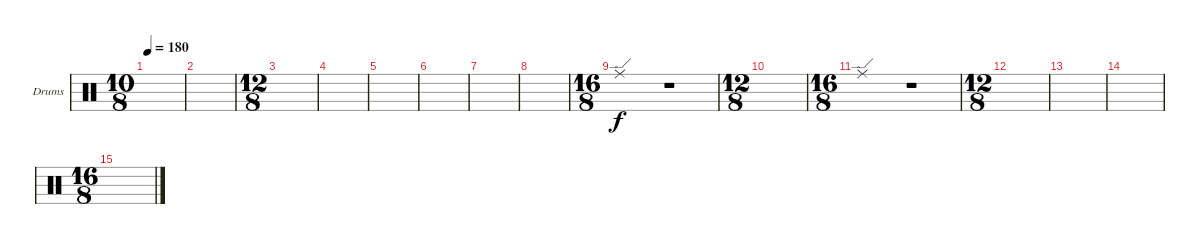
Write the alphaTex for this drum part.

\defaultSystemsLayout 4
\bracketExtendMode groupsimilarinstruments
\firstSystemTrackNameOrientation horizontal
\otherSystemsTrackNameOrientation horizontal
\track ("Ride" "Drums") {instrument percussion}
\staff {score}
\articulation defaults
\ts (10 8)
\tempo 180
\clef neutral
\ks c
|
|
\ts (12 8)
|
|
|
|
|
|
\ts (16 8)
"Ride (edge)".1 r.1 |
\ts (12 8)
|
\ts (16 8)
"Ride (edge)".1 r.1 |
\ts (12 8)
|
|
|
\ts (16 8)
